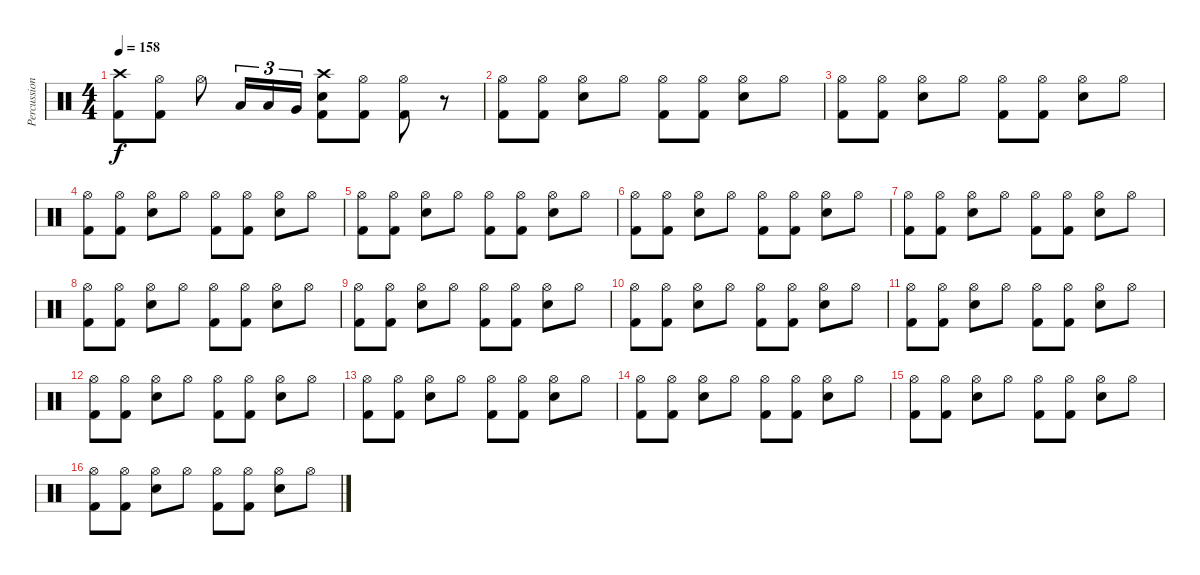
\track ("Percussion" "Percussion") {instrument percussion}
\staff {score}
\articulation defaults
\ts (4 4)
\tempo 158
\clef neutral
\ks c
("Crash high (hit)" "Kick (hit) 2").8{dy f} ("Hi-Hat (open)" "Kick (hit) 2").8 "Hi-Hat (open)".8 "Low Tom (hit)".16{tu (3 2)} "Low Tom (hit)".16{tu (3 2)} "Very Low Tom (hit)".16{tu (3 2)} ("Crash high (hit)" "Electric Snare (hit)" "Kick (hit) 2").8 ("Hi-Hat (open)" "Kick (hit) 2").8 ("Hi-Hat (open)" "Kick (hit) 2").8 r.8 |
("Hi-Hat (open)" "Kick (hit) 2").8 ("Hi-Hat (open)" "Kick (hit) 2").8 ("Hi-Hat (open)" "Electric Snare (hit)").8 "Hi-Hat (open)".8 ("Hi-Hat (open)" "Kick (hit) 2").8 ("Hi-Hat (open)" "Kick (hit) 2").8 ("Hi-Hat (open)" "Electric Snare (hit)").8 "Hi-Hat (open)".8 |
("Hi-Hat (open)" "Kick (hit) 2").8 ("Hi-Hat (open)" "Kick (hit) 2").8 ("Hi-Hat (open)" "Electric Snare (hit)").8 "Hi-Hat (open)".8 ("Hi-Hat (open)" "Kick (hit) 2").8 ("Hi-Hat (open)" "Kick (hit) 2").8 ("Hi-Hat (open)" "Electric Snare (hit)").8 "Hi-Hat (open)".8 |
("Hi-Hat (open)" "Kick (hit) 2").8 ("Hi-Hat (open)" "Kick (hit) 2").8 ("Hi-Hat (open)" "Electric Snare (hit)").8 "Hi-Hat (open)".8 ("Hi-Hat (open)" "Kick (hit) 2").8 ("Hi-Hat (open)" "Kick (hit) 2").8 ("Hi-Hat (open)" "Electric Snare (hit)").8 "Hi-Hat (open)".8 |
("Hi-Hat (open)" "Kick (hit) 2").8 ("Hi-Hat (open)" "Kick (hit) 2").8 ("Hi-Hat (open)" "Electric Snare (hit)").8 "Hi-Hat (open)".8 ("Hi-Hat (open)" "Kick (hit) 2").8 ("Hi-Hat (open)" "Kick (hit) 2").8 ("Hi-Hat (open)" "Electric Snare (hit)").8 "Hi-Hat (open)".8 |
("Hi-Hat (open)" "Kick (hit) 2").8 ("Hi-Hat (open)" "Kick (hit) 2").8 ("Hi-Hat (open)" "Electric Snare (hit)").8 "Hi-Hat (open)".8 ("Hi-Hat (open)" "Kick (hit) 2").8 ("Hi-Hat (open)" "Kick (hit) 2").8 ("Hi-Hat (open)" "Electric Snare (hit)").8 "Hi-Hat (open)".8 |
("Hi-Hat (open)" "Kick (hit) 2").8 ("Hi-Hat (open)" "Kick (hit) 2").8 ("Hi-Hat (open)" "Electric Snare (hit)").8 "Hi-Hat (open)".8 ("Hi-Hat (open)" "Kick (hit) 2").8 ("Hi-Hat (open)" "Kick (hit) 2").8 ("Hi-Hat (open)" "Electric Snare (hit)").8 "Hi-Hat (open)".8 |
("Hi-Hat (open)" "Kick (hit) 2").8 ("Hi-Hat (open)" "Kick (hit) 2").8 ("Hi-Hat (open)" "Electric Snare (hit)").8 "Hi-Hat (open)".8 ("Hi-Hat (open)" "Kick (hit) 2").8 ("Hi-Hat (open)" "Kick (hit) 2").8 ("Hi-Hat (open)" "Electric Snare (hit)").8 "Hi-Hat (open)".8 |
("Hi-Hat (open)" "Kick (hit) 2").8 ("Hi-Hat (open)" "Kick (hit) 2").8 ("Hi-Hat (open)" "Electric Snare (hit)").8 "Hi-Hat (open)".8 ("Hi-Hat (open)" "Kick (hit) 2").8 ("Hi-Hat (open)" "Kick (hit) 2").8 ("Hi-Hat (open)" "Electric Snare (hit)").8 "Hi-Hat (open)".8 |
("Hi-Hat (open)" "Kick (hit) 2").8 ("Hi-Hat (open)" "Kick (hit) 2").8 ("Hi-Hat (open)" "Electric Snare (hit)").8 "Hi-Hat (open)".8 ("Hi-Hat (open)" "Kick (hit) 2").8 ("Hi-Hat (open)" "Kick (hit) 2").8 ("Hi-Hat (open)" "Electric Snare (hit)").8 "Hi-Hat (open)".8 |
("Hi-Hat (open)" "Kick (hit) 2").8 ("Hi-Hat (open)" "Kick (hit) 2").8 ("Hi-Hat (open)" "Electric Snare (hit)").8 "Hi-Hat (open)".8 ("Hi-Hat (open)" "Kick (hit) 2").8 ("Hi-Hat (open)" "Kick (hit) 2").8 ("Hi-Hat (open)" "Electric Snare (hit)").8 "Hi-Hat (open)".8 |
("Hi-Hat (open)" "Kick (hit) 2").8 ("Hi-Hat (open)" "Kick (hit) 2").8 ("Hi-Hat (open)" "Electric Snare (hit)").8 "Hi-Hat (open)".8 ("Hi-Hat (open)" "Kick (hit) 2").8 ("Hi-Hat (open)" "Kick (hit) 2").8 ("Hi-Hat (open)" "Electric Snare (hit)").8 "Hi-Hat (open)".8 |
("Hi-Hat (open)" "Kick (hit) 2").8 ("Hi-Hat (open)" "Kick (hit) 2").8 ("Hi-Hat (open)" "Electric Snare (hit)").8 "Hi-Hat (open)".8 ("Hi-Hat (open)" "Kick (hit) 2").8 ("Hi-Hat (open)" "Kick (hit) 2").8 ("Hi-Hat (open)" "Electric Snare (hit)").8 "Hi-Hat (open)".8 |
("Hi-Hat (open)" "Kick (hit) 2").8 ("Hi-Hat (open)" "Kick (hit) 2").8 ("Hi-Hat (open)" "Electric Snare (hit)").8 "Hi-Hat (open)".8 ("Hi-Hat (open)" "Kick (hit) 2").8 ("Hi-Hat (open)" "Kick (hit) 2").8 ("Hi-Hat (open)" "Electric Snare (hit)").8 "Hi-Hat (open)".8 |
("Hi-Hat (open)" "Kick (hit) 2").8 ("Hi-Hat (open)" "Kick (hit) 2").8 ("Hi-Hat (open)" "Electric Snare (hit)").8 "Hi-Hat (open)".8 ("Hi-Hat (open)" "Kick (hit) 2").8 ("Hi-Hat (open)" "Kick (hit) 2").8 ("Hi-Hat (open)" "Electric Snare (hit)").8 "Hi-Hat (open)".8 |
("Hi-Hat (open)" "Kick (hit) 2").8 ("Hi-Hat (open)" "Kick (hit) 2").8 ("Hi-Hat (open)" "Electric Snare (hit)").8 "Hi-Hat (open)".8 ("Hi-Hat (open)" "Kick (hit) 2").8 ("Hi-Hat (open)" "Kick (hit) 2").8 ("Hi-Hat (open)" "Electric Snare (hit)").8 "Hi-Hat (open)".8
